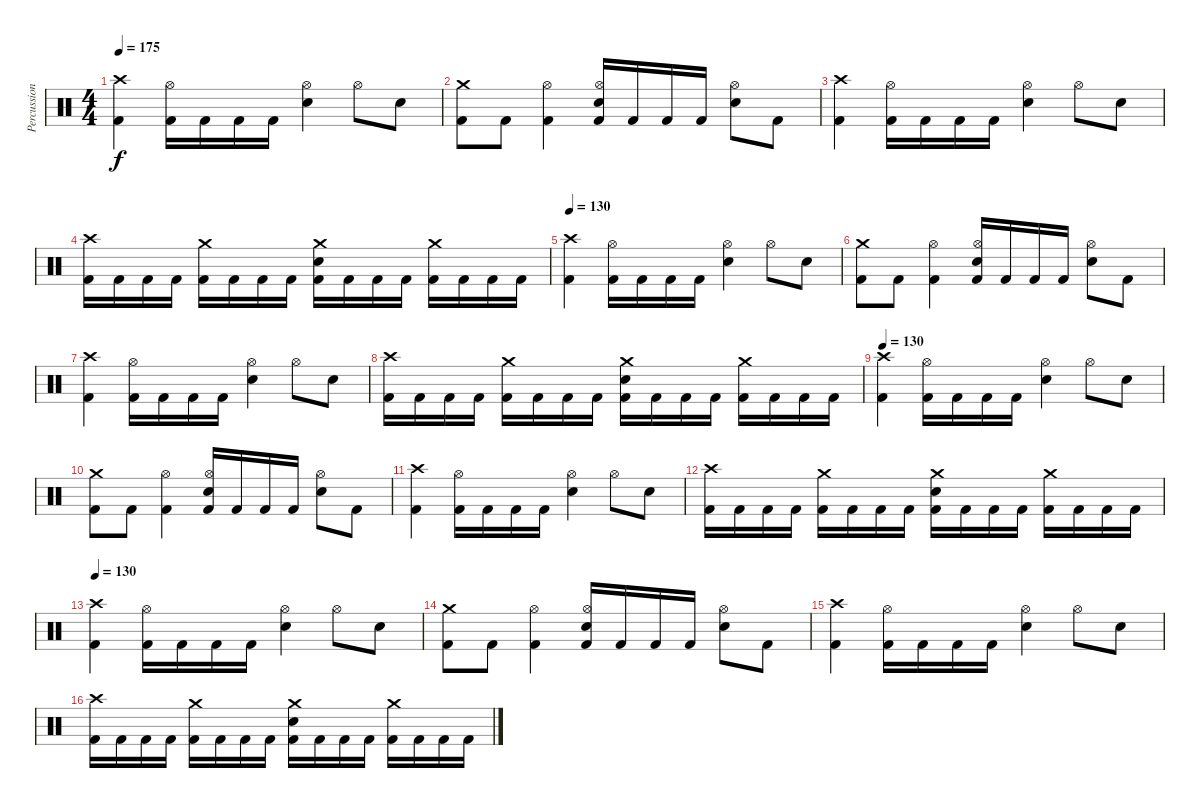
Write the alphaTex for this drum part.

\track ("Percussion" "Percussion") {instrument percussion}
\staff {score}
\articulation defaults
\ts (4 4)
\tempo 175
\tempo 130
\tempo 175
\clef neutral
\ks c
("Crash high (hit)" "Kick (hit) 2").4{dy f} ("Hi-Hat (open)" "Kick (hit) 2").16 "Kick (hit) 2".16 "Kick (hit) 2".16 "Kick (hit) 2".16 ("Hi-Hat (open)" "Electric Snare (hit)").4 "Hi-Hat (open)".8 "Electric Snare (hit)".8 |
("Crash medium (hit)" "Kick (hit) 2").8 "Kick (hit) 2".8 ("Hi-Hat (open)" "Kick (hit) 2").4 ("Hi-Hat (open)" "Electric Snare (hit)" "Kick (hit) 2").16 "Kick (hit) 2".16 "Kick (hit) 2".16 "Kick (hit) 2".16 ("Hi-Hat (open)" "Electric Snare (hit)").8 "Kick (hit) 2".8 |
("Crash high (hit)" "Kick (hit) 2").4 ("Hi-Hat (open)" "Kick (hit) 2").16 "Kick (hit) 2".16 "Kick (hit) 2".16 "Kick (hit) 2".16 ("Hi-Hat (open)" "Electric Snare (hit)").4 "Hi-Hat (open)".8 "Electric Snare (hit)".8 |
("Crash high (hit)" "Kick (hit) 2").16 "Kick (hit) 2".16 "Kick (hit) 2".16 "Kick (hit) 2".16 ("Crash medium (hit)" "Kick (hit) 2").16 "Kick (hit) 2".16 "Kick (hit) 2".16 "Kick (hit) 2".16 ("Crash medium (hit)" "Electric Snare (hit)" "Kick (hit) 2").16 "Kick (hit) 2".16 "Kick (hit) 2".16 "Kick (hit) 2".16 ("Crash medium (hit)" "Kick (hit) 2").16 "Kick (hit) 2".16 "Kick (hit) 2".16 "Kick (hit) 2".16 |
\tempo 130
("Crash high (hit)" "Kick (hit) 2").4 ("Hi-Hat (open)" "Kick (hit) 2").16 "Kick (hit) 2".16 "Kick (hit) 2".16 "Kick (hit) 2".16 ("Hi-Hat (open)" "Electric Snare (hit)").4 "Hi-Hat (open)".8 "Electric Snare (hit)".8 |
("Crash medium (hit)" "Kick (hit) 2").8 "Kick (hit) 2".8 ("Hi-Hat (open)" "Kick (hit) 2").4 ("Hi-Hat (open)" "Electric Snare (hit)" "Kick (hit) 2").16 "Kick (hit) 2".16 "Kick (hit) 2".16 "Kick (hit) 2".16 ("Hi-Hat (open)" "Electric Snare (hit)").8 "Kick (hit) 2".8 |
("Crash high (hit)" "Kick (hit) 2").4 ("Hi-Hat (open)" "Kick (hit) 2").16 "Kick (hit) 2".16 "Kick (hit) 2".16 "Kick (hit) 2".16 ("Hi-Hat (open)" "Electric Snare (hit)").4 "Hi-Hat (open)".8 "Electric Snare (hit)".8 |
("Crash high (hit)" "Kick (hit) 2").16 "Kick (hit) 2".16 "Kick (hit) 2".16 "Kick (hit) 2".16 ("Crash medium (hit)" "Kick (hit) 2").16 "Kick (hit) 2".16 "Kick (hit) 2".16 "Kick (hit) 2".16 ("Crash medium (hit)" "Electric Snare (hit)" "Kick (hit) 2").16 "Kick (hit) 2".16 "Kick (hit) 2".16 "Kick (hit) 2".16 ("Crash medium (hit)" "Kick (hit) 2").16 "Kick (hit) 2".16 "Kick (hit) 2".16 "Kick (hit) 2".16 |
\tempo 130
("Crash high (hit)" "Kick (hit) 2").4 ("Hi-Hat (open)" "Kick (hit) 2").16 "Kick (hit) 2".16 "Kick (hit) 2".16 "Kick (hit) 2".16 ("Hi-Hat (open)" "Electric Snare (hit)").4 "Hi-Hat (open)".8 "Electric Snare (hit)".8 |
("Crash medium (hit)" "Kick (hit) 2").8 "Kick (hit) 2".8 ("Hi-Hat (open)" "Kick (hit) 2").4 ("Hi-Hat (open)" "Electric Snare (hit)" "Kick (hit) 2").16 "Kick (hit) 2".16 "Kick (hit) 2".16 "Kick (hit) 2".16 ("Hi-Hat (open)" "Electric Snare (hit)").8 "Kick (hit) 2".8 |
("Crash high (hit)" "Kick (hit) 2").4 ("Hi-Hat (open)" "Kick (hit) 2").16 "Kick (hit) 2".16 "Kick (hit) 2".16 "Kick (hit) 2".16 ("Hi-Hat (open)" "Electric Snare (hit)").4 "Hi-Hat (open)".8 "Electric Snare (hit)".8 |
("Crash high (hit)" "Kick (hit) 2").16 "Kick (hit) 2".16 "Kick (hit) 2".16 "Kick (hit) 2".16 ("Crash medium (hit)" "Kick (hit) 2").16 "Kick (hit) 2".16 "Kick (hit) 2".16 "Kick (hit) 2".16 ("Crash medium (hit)" "Electric Snare (hit)" "Kick (hit) 2").16 "Kick (hit) 2".16 "Kick (hit) 2".16 "Kick (hit) 2".16 ("Crash medium (hit)" "Kick (hit) 2").16 "Kick (hit) 2".16 "Kick (hit) 2".16 "Kick (hit) 2".16 |
\tempo 130
("Crash high (hit)" "Kick (hit) 2").4 ("Hi-Hat (open)" "Kick (hit) 2").16 "Kick (hit) 2".16 "Kick (hit) 2".16 "Kick (hit) 2".16 ("Hi-Hat (open)" "Electric Snare (hit)").4 "Hi-Hat (open)".8 "Electric Snare (hit)".8 |
("Crash medium (hit)" "Kick (hit) 2").8 "Kick (hit) 2".8 ("Hi-Hat (open)" "Kick (hit) 2").4 ("Hi-Hat (open)" "Electric Snare (hit)" "Kick (hit) 2").16 "Kick (hit) 2".16 "Kick (hit) 2".16 "Kick (hit) 2".16 ("Hi-Hat (open)" "Electric Snare (hit)").8 "Kick (hit) 2".8 |
("Crash high (hit)" "Kick (hit) 2").4 ("Hi-Hat (open)" "Kick (hit) 2").16 "Kick (hit) 2".16 "Kick (hit) 2".16 "Kick (hit) 2".16 ("Hi-Hat (open)" "Electric Snare (hit)").4 "Hi-Hat (open)".8 "Electric Snare (hit)".8 |
("Crash high (hit)" "Kick (hit) 2").16 "Kick (hit) 2".16 "Kick (hit) 2".16 "Kick (hit) 2".16 ("Crash medium (hit)" "Kick (hit) 2").16 "Kick (hit) 2".16 "Kick (hit) 2".16 "Kick (hit) 2".16 ("Crash medium (hit)" "Electric Snare (hit)" "Kick (hit) 2").16 "Kick (hit) 2".16 "Kick (hit) 2".16 "Kick (hit) 2".16 ("Crash medium (hit)" "Kick (hit) 2").16 "Kick (hit) 2".16 "Kick (hit) 2".16 "Kick (hit) 2".16
